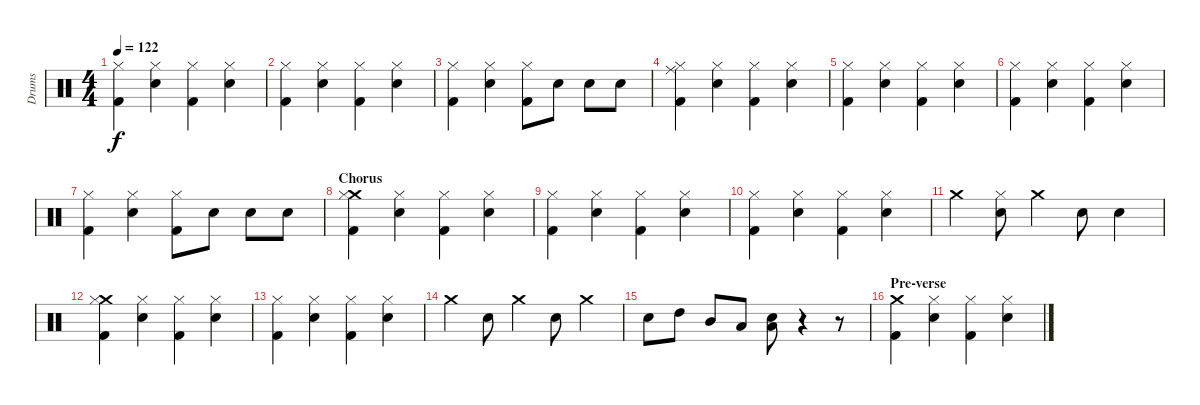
\track ("Drums" "Drums") {instrument percussion}
\staff {score}
\articulation defaults
\ts (4 4)
\tempo 122
\clef neutral
\ks aminor
("Hi-Hat (closed)" "Kick (hit) 2").4{dy f} ("Hi-Hat (closed)" "Snare (hit) 2").4 ("Hi-Hat (closed)" "Kick (hit) 2").4 ("Hi-Hat (closed)" "Snare (hit) 2").4 |
("Hi-Hat (closed)" "Kick (hit) 2").4 ("Hi-Hat (closed)" "Snare (hit) 2").4 ("Hi-Hat (closed)" "Kick (hit) 2").4 ("Hi-Hat (closed)" "Snare (hit) 2").4 |
("Hi-Hat (closed)" "Kick (hit) 2").4 ("Hi-Hat (closed)" "Snare (hit) 2").4 ("Hi-Hat (closed)" "Kick (hit) 2").8 "Electric Snare (hit)".8 "Electric Snare (hit)".8 "Electric Snare (hit)".8 |
("Ride (middle)" "Hi-Hat (closed)" "Kick (hit) 2").4 ("Hi-Hat (closed)" "Snare (hit) 2").4 ("Hi-Hat (closed)" "Kick (hit) 2").4 ("Hi-Hat (closed)" "Snare (hit) 2").4 |
("Hi-Hat (closed)" "Kick (hit) 2").4 ("Hi-Hat (closed)" "Snare (hit) 2").4 ("Hi-Hat (closed)" "Kick (hit) 2").4 ("Hi-Hat (closed)" "Snare (hit) 2").4 |
("Hi-Hat (closed)" "Kick (hit) 2").4 ("Hi-Hat (closed)" "Snare (hit) 2").4 ("Hi-Hat (closed)" "Kick (hit) 2").4 ("Hi-Hat (closed)" "Snare (hit) 2").4 |
("Hi-Hat (closed)" "Kick (hit) 2").4 ("Hi-Hat (closed)" "Snare (hit) 2").4 ("Hi-Hat (closed)" "Kick (hit) 2").8 "Electric Snare (hit)".8 "Electric Snare (hit)".8 "Electric Snare (hit)".8 |
\section ("" "Chorus")
("Crash medium (hit)" "Hi-Hat (closed)" "Kick (hit) 2").4 ("Hi-Hat (closed)" "Snare (hit) 2").4 ("Hi-Hat (closed)" "Kick (hit) 2").4 ("Hi-Hat (closed)" "Snare (hit) 2").4 |
("Hi-Hat (closed)" "Kick (hit) 2").4 ("Hi-Hat (closed)" "Snare (hit) 2").4 ("Hi-Hat (closed)" "Kick (hit) 2").4 ("Hi-Hat (closed)" "Snare (hit) 2").4 |
("Hi-Hat (closed)" "Kick (hit) 2").4 ("Hi-Hat (closed)" "Snare (hit) 2").4 ("Hi-Hat (closed)" "Kick (hit) 2").4 ("Hi-Hat (closed)" "Snare (hit) 2").4 |
"Crash medium (hit)".4 ("Hi-Hat (closed)" "Snare (hit) 2").8 "Crash medium (hit)".4 "Electric Snare (hit)".8 "Electric Snare (hit)".4 |
("Crash medium (hit)" "Hi-Hat (closed)" "Kick (hit) 2").4 ("Hi-Hat (closed)" "Snare (hit) 2").4 ("Hi-Hat (closed)" "Kick (hit) 2").4 ("Hi-Hat (closed)" "Snare (hit) 2").4 |
("Hi-Hat (closed)" "Kick (hit) 2").4 ("Hi-Hat (closed)" "Snare (hit) 2").4 ("Hi-Hat (closed)" "Kick (hit) 2").4 ("Hi-Hat (closed)" "Snare (hit) 2").4 |
"Crash medium (hit)".4 "Electric Snare (hit)".8 "Crash medium (hit)".4 "Electric Snare (hit)".8 "Crash medium (hit)".4 |
"Electric Snare (hit)".8 "High Tom (hit)".8 "Mid Tom (hit)".8 "Low Tom (hit)".8 ("Snare (hit) 2" "Low Tom (hit)").8 r.4 r.8 |
\section ("" "Pre-verse")
("Crash medium (hit)" "Kick (hit) 2").4 ("Hi-Hat (closed)" "Snare (hit) 2").4 ("Hi-Hat (closed)" "Kick (hit) 2").4 ("Hi-Hat (closed)" "Snare (hit) 2").4
